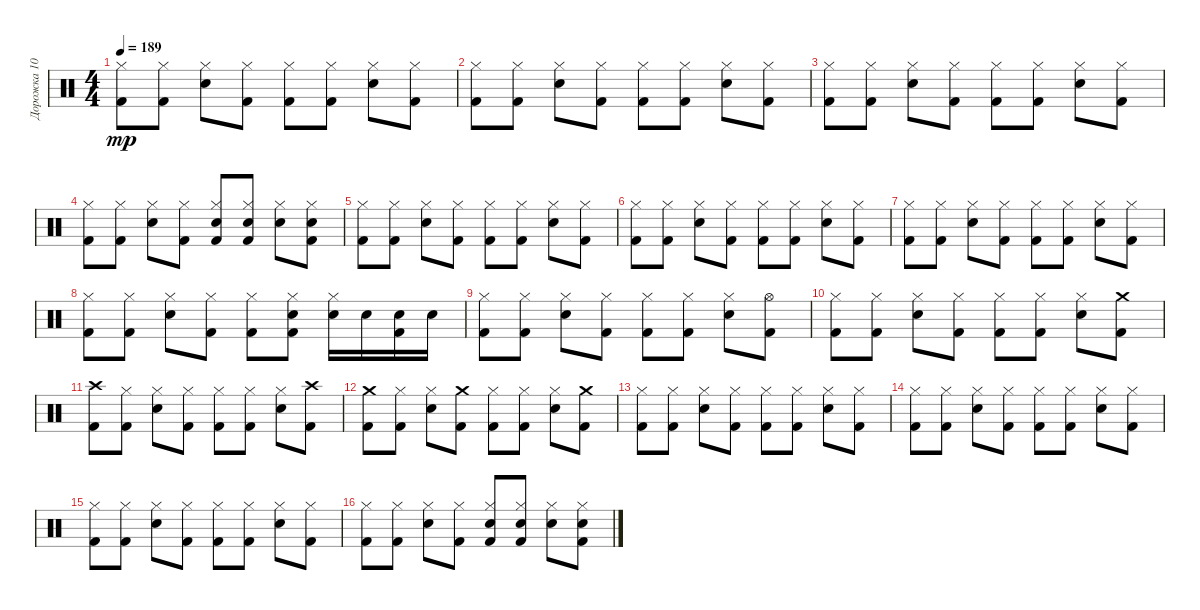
\track ("Дорожка 10" "Дорожка 10") {instrument percussion}
\staff {score}
\articulation defaults
\ts (4 4)
\tempo 189
\clef neutral
\ks c
("Kick (hit) 2" "Hi-Hat (closed)").8{dy mp} ("Kick (hit) 2" "Hi-Hat (closed)").8 ("Snare (hit) 2" "Hi-Hat (closed)").8 ("Kick (hit) 2" "Hi-Hat (closed)").8 ("Kick (hit) 2" "Hi-Hat (closed)").8 ("Kick (hit) 2" "Hi-Hat (closed)").8 ("Snare (hit) 2" "Hi-Hat (closed)").8 ("Kick (hit) 2" "Hi-Hat (closed)").8 |
("Kick (hit) 2" "Hi-Hat (closed)").8 ("Kick (hit) 2" "Hi-Hat (closed)").8 ("Snare (hit) 2" "Hi-Hat (closed)").8 ("Kick (hit) 2" "Hi-Hat (closed)").8 ("Kick (hit) 2" "Hi-Hat (closed)").8 ("Kick (hit) 2" "Hi-Hat (closed)").8 ("Snare (hit) 2" "Hi-Hat (closed)").8 ("Kick (hit) 2" "Hi-Hat (closed)").8 |
("Kick (hit) 2" "Hi-Hat (closed)").8 ("Kick (hit) 2" "Hi-Hat (closed)").8 ("Snare (hit) 2" "Hi-Hat (closed)").8 ("Kick (hit) 2" "Hi-Hat (closed)").8 ("Kick (hit) 2" "Hi-Hat (closed)").8 ("Kick (hit) 2" "Hi-Hat (closed)").8 ("Snare (hit) 2" "Hi-Hat (closed)").8 ("Kick (hit) 2" "Hi-Hat (closed)").8 |
("Kick (hit) 2" "Hi-Hat (closed)").8 ("Kick (hit) 2" "Hi-Hat (closed)").8 ("Snare (hit) 2" "Hi-Hat (closed)").8 ("Kick (hit) 2" "Hi-Hat (closed)").8 ("Kick (hit) 2" "Snare (hit) 2" "Hi-Hat (closed)").8 ("Kick (hit) 2" "Snare (hit) 2" "Hi-Hat (closed)").8 ("Snare (hit) 2" "Hi-Hat (closed)").8 ("Kick (hit) 2" "Snare (hit) 2" "Hi-Hat (closed)").8 |
("Kick (hit) 2" "Hi-Hat (closed)").8 ("Kick (hit) 2" "Hi-Hat (closed)").8 ("Snare (hit) 2" "Hi-Hat (closed)").8 ("Kick (hit) 2" "Hi-Hat (closed)").8 ("Kick (hit) 2" "Hi-Hat (closed)").8 ("Kick (hit) 2" "Hi-Hat (closed)").8 ("Snare (hit) 2" "Hi-Hat (closed)").8 ("Kick (hit) 2" "Hi-Hat (closed)").8 |
("Kick (hit) 2" "Hi-Hat (closed)").8 ("Kick (hit) 2" "Hi-Hat (closed)").8 ("Snare (hit) 2" "Hi-Hat (closed)").8 ("Kick (hit) 2" "Hi-Hat (closed)").8 ("Kick (hit) 2" "Hi-Hat (closed)").8 ("Kick (hit) 2" "Hi-Hat (closed)").8 ("Snare (hit) 2" "Hi-Hat (closed)").8 ("Kick (hit) 2" "Hi-Hat (closed)").8 |
("Kick (hit) 2" "Hi-Hat (closed)").8 ("Kick (hit) 2" "Hi-Hat (closed)").8 ("Snare (hit) 2" "Hi-Hat (closed)").8 ("Kick (hit) 2" "Hi-Hat (closed)").8 ("Kick (hit) 2" "Hi-Hat (closed)").8 ("Kick (hit) 2" "Hi-Hat (closed)").8 ("Snare (hit) 2" "Hi-Hat (closed)").8 ("Kick (hit) 2" "Hi-Hat (closed)").8 |
("Kick (hit) 2" "Hi-Hat (closed)").8 ("Kick (hit) 2" "Hi-Hat (closed)").8 ("Snare (hit) 2" "Hi-Hat (closed)").8 ("Kick (hit) 2" "Hi-Hat (closed)").8 ("Kick (hit) 2" "Hi-Hat (closed)").8 ("Kick (hit) 2" "Snare (hit) 2" "Hi-Hat (closed)").8 ("Snare (hit) 2" "Hi-Hat (closed)").16 "Snare (hit) 2".16 ("Kick (hit) 2" "Snare (hit) 2").16 "Snare (hit) 2".16 |
("Kick (hit) 2" "Hi-Hat (closed)").8 ("Kick (hit) 2" "Hi-Hat (closed)").8 ("Snare (hit) 2" "Hi-Hat (closed)").8 ("Kick (hit) 2" "Hi-Hat (closed)").8 ("Kick (hit) 2" "Hi-Hat (closed)").8 ("Kick (hit) 2" "Hi-Hat (closed)").8 ("Snare (hit) 2" "Hi-Hat (closed)").8 ("Kick (hit) 2" "Hi-Hat (open)").8 |
("Kick (hit) 2" "Hi-Hat (closed)").8 ("Kick (hit) 2" "Hi-Hat (closed)").8 ("Snare (hit) 2" "Hi-Hat (closed)").8 ("Kick (hit) 2" "Hi-Hat (closed)").8 ("Kick (hit) 2" "Hi-Hat (closed)").8 ("Kick (hit) 2" "Hi-Hat (closed)").8 ("Snare (hit) 2" "Hi-Hat (closed)").8 ("Kick (hit) 2" "Crash medium (hit)").8 |
("Kick (hit) 2" "Crash high (hit)").8 ("Kick (hit) 2" "Hi-Hat (closed)").8 ("Snare (hit) 2" "Hi-Hat (closed)").8 ("Kick (hit) 2" "Hi-Hat (closed)").8 ("Kick (hit) 2" "Hi-Hat (closed)").8 ("Kick (hit) 2" "Hi-Hat (closed)").8 ("Snare (hit) 2" "Hi-Hat (closed)").8 ("Kick (hit) 2" "Crash high (hit)").8 |
("Kick (hit) 2" "Crash medium (hit)").8 ("Kick (hit) 2" "Hi-Hat (closed)").8 ("Snare (hit) 2" "Hi-Hat (closed)").8 ("Kick (hit) 2" "Crash medium (hit)").8 ("Kick (hit) 2" "Hi-Hat (closed)").8 ("Kick (hit) 2" "Hi-Hat (closed)").8 ("Snare (hit) 2" "Hi-Hat (closed)").8 ("Kick (hit) 2" "Crash medium (hit)").8 |
("Kick (hit) 2" "Hi-Hat (closed)").8 ("Kick (hit) 2" "Hi-Hat (closed)").8 ("Snare (hit) 2" "Hi-Hat (closed)").8 ("Kick (hit) 2" "Hi-Hat (closed)").8 ("Kick (hit) 2" "Hi-Hat (closed)").8 ("Kick (hit) 2" "Hi-Hat (closed)").8 ("Snare (hit) 2" "Hi-Hat (closed)").8 ("Kick (hit) 2" "Hi-Hat (closed)").8 |
("Kick (hit) 2" "Hi-Hat (closed)").8 ("Kick (hit) 2" "Hi-Hat (closed)").8 ("Snare (hit) 2" "Hi-Hat (closed)").8 ("Kick (hit) 2" "Hi-Hat (closed)").8 ("Kick (hit) 2" "Hi-Hat (closed)").8 ("Kick (hit) 2" "Hi-Hat (closed)").8 ("Snare (hit) 2" "Hi-Hat (closed)").8 ("Kick (hit) 2" "Hi-Hat (closed)").8 |
("Kick (hit) 2" "Hi-Hat (closed)").8 ("Kick (hit) 2" "Hi-Hat (closed)").8 ("Snare (hit) 2" "Hi-Hat (closed)").8 ("Kick (hit) 2" "Hi-Hat (closed)").8 ("Kick (hit) 2" "Hi-Hat (closed)").8 ("Kick (hit) 2" "Hi-Hat (closed)").8 ("Snare (hit) 2" "Hi-Hat (closed)").8 ("Kick (hit) 2" "Hi-Hat (closed)").8 |
("Kick (hit) 2" "Hi-Hat (closed)").8 ("Kick (hit) 2" "Hi-Hat (closed)").8 ("Snare (hit) 2" "Hi-Hat (closed)").8 ("Kick (hit) 2" "Hi-Hat (closed)").8 ("Kick (hit) 2" "Snare (hit) 2" "Hi-Hat (closed)").8 ("Kick (hit) 2" "Snare (hit) 2" "Hi-Hat (closed)").8 ("Snare (hit) 2" "Hi-Hat (closed)").8 ("Kick (hit) 2" "Snare (hit) 2" "Hi-Hat (closed)").8
